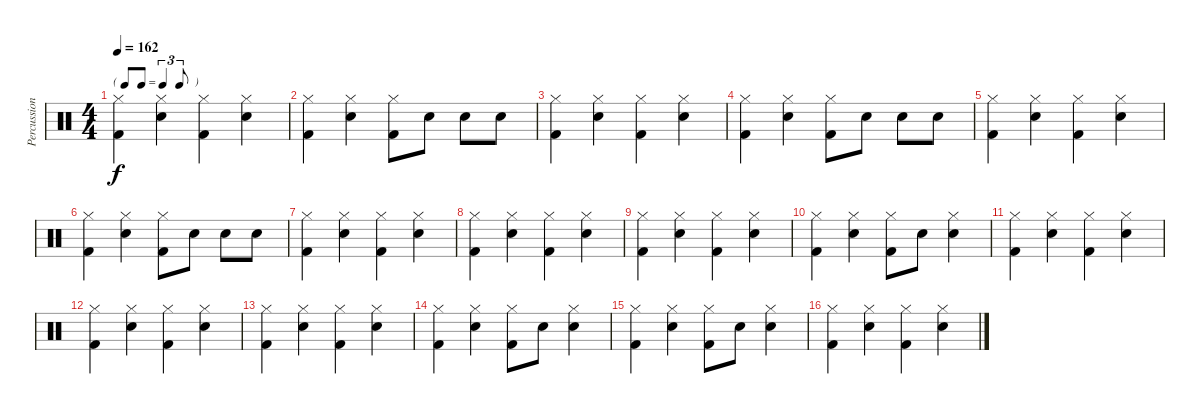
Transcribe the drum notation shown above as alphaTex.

\track ("Percussion" "Percussion") {instrument percussion}
\staff {score}
\articulation defaults
\ts (4 4)
\tf triplet8th
\tempo 162
\clef neutral
\ks c
("Kick (hit) 2" "Hi-Hat (closed)").4{dy f} ("Snare (hit) 2" "Hi-Hat (closed)").4 ("Kick (hit) 2" "Hi-Hat (closed)").4 ("Snare (hit) 2" "Hi-Hat (closed)").4 |
("Kick (hit) 2" "Hi-Hat (closed)").4 ("Snare (hit) 2" "Hi-Hat (closed)").4 ("Kick (hit) 2" "Hi-Hat (closed)").8 "Snare (hit) 2".8 "Snare (hit) 2".8 "Snare (hit) 2".8 |
("Kick (hit) 2" "Hi-Hat (closed)").4 ("Snare (hit) 2" "Hi-Hat (closed)").4 ("Kick (hit) 2" "Hi-Hat (closed)").4 ("Snare (hit) 2" "Hi-Hat (closed)").4 |
("Kick (hit) 2" "Hi-Hat (closed)").4 ("Snare (hit) 2" "Hi-Hat (closed)").4 ("Kick (hit) 2" "Hi-Hat (closed)").8 "Snare (hit) 2".8 "Snare (hit) 2".8 "Snare (hit) 2".8 |
("Kick (hit) 2" "Hi-Hat (closed)").4 ("Snare (hit) 2" "Hi-Hat (closed)").4 ("Kick (hit) 2" "Hi-Hat (closed)").4 ("Snare (hit) 2" "Hi-Hat (closed)").4 |
("Kick (hit) 2" "Hi-Hat (closed)").4 ("Snare (hit) 2" "Hi-Hat (closed)").4 ("Kick (hit) 2" "Hi-Hat (closed)").8 "Snare (hit) 2".8 "Snare (hit) 2".8 "Snare (hit) 2".8 |
("Kick (hit) 2" "Hi-Hat (closed)").4 ("Snare (hit) 2" "Hi-Hat (closed)").4 ("Kick (hit) 2" "Hi-Hat (closed)").4 ("Snare (hit) 2" "Hi-Hat (closed)").4 |
("Kick (hit) 2" "Hi-Hat (closed)").4 ("Snare (hit) 2" "Hi-Hat (closed)").4 ("Kick (hit) 2" "Hi-Hat (closed)").4 ("Snare (hit) 2" "Hi-Hat (closed)").4 |
("Kick (hit) 2" "Hi-Hat (closed)").4 ("Snare (hit) 2" "Hi-Hat (closed)").4 ("Kick (hit) 2" "Hi-Hat (closed)").4 ("Snare (hit) 2" "Hi-Hat (closed)").4 |
("Kick (hit) 2" "Hi-Hat (closed)").4 ("Snare (hit) 2" "Hi-Hat (closed)").4 ("Kick (hit) 2" "Hi-Hat (closed)").8 "Snare (hit) 2".8 ("Snare (hit) 2" "Hi-Hat (closed)").4 |
("Kick (hit) 2" "Hi-Hat (closed)").4 ("Snare (hit) 2" "Hi-Hat (closed)").4 ("Kick (hit) 2" "Hi-Hat (closed)").4 ("Snare (hit) 2" "Hi-Hat (closed)").4 |
("Kick (hit) 2" "Hi-Hat (closed)").4 ("Snare (hit) 2" "Hi-Hat (closed)").4 ("Kick (hit) 2" "Hi-Hat (closed)").4 ("Snare (hit) 2" "Hi-Hat (closed)").4 |
("Kick (hit) 2" "Hi-Hat (closed)").4 ("Snare (hit) 2" "Hi-Hat (closed)").4 ("Kick (hit) 2" "Hi-Hat (closed)").4 ("Snare (hit) 2" "Hi-Hat (closed)").4 |
("Kick (hit) 2" "Hi-Hat (closed)").4 ("Snare (hit) 2" "Hi-Hat (closed)").4 ("Kick (hit) 2" "Hi-Hat (closed)").8 "Snare (hit) 2".8 ("Snare (hit) 2" "Hi-Hat (closed)").4 |
("Kick (hit) 2" "Hi-Hat (closed)").4 ("Snare (hit) 2" "Hi-Hat (closed)").4 ("Kick (hit) 2" "Hi-Hat (closed)").8 "Snare (hit) 2".8 ("Snare (hit) 2" "Hi-Hat (closed)").4 |
("Kick (hit) 2" "Hi-Hat (closed)").4 ("Snare (hit) 2" "Hi-Hat (closed)").4 ("Kick (hit) 2" "Hi-Hat (closed)").4 ("Snare (hit) 2" "Hi-Hat (closed)").4
